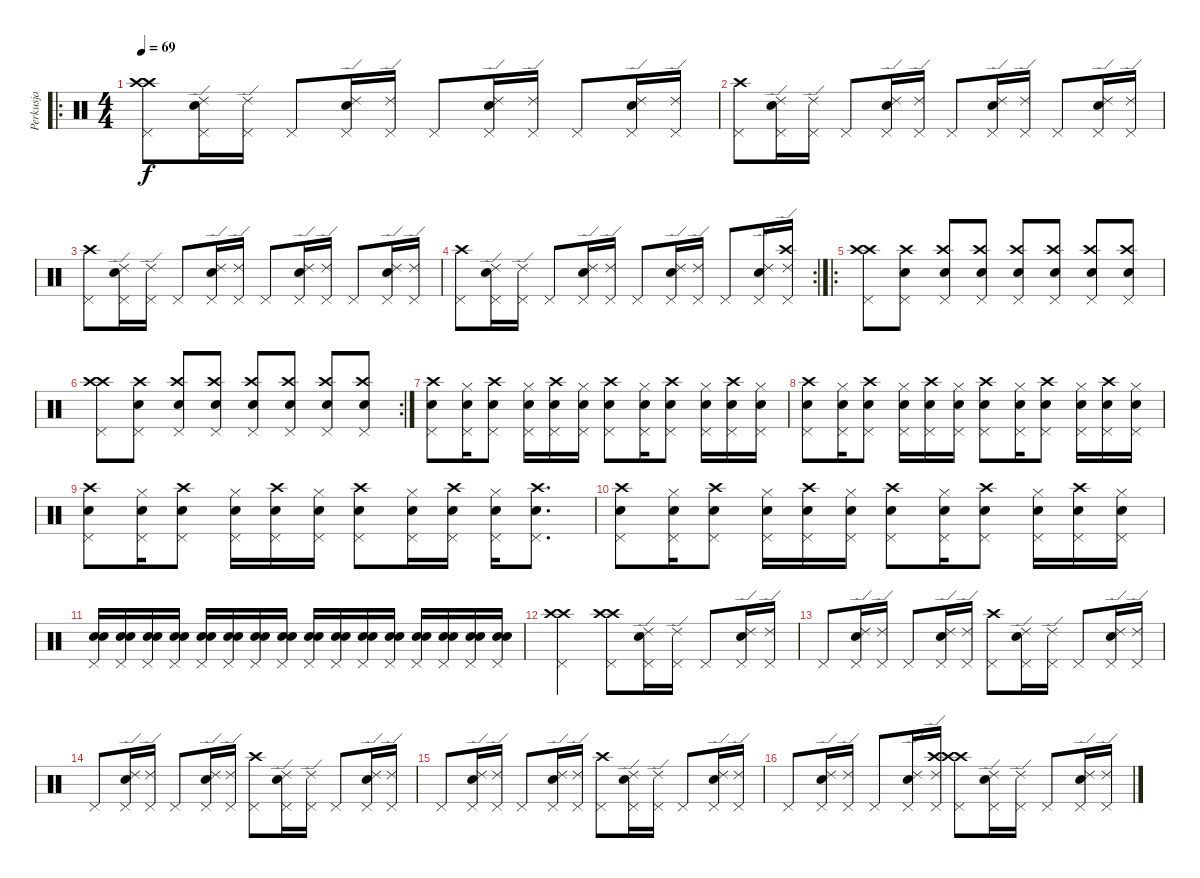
\track ("Perkusja" "Perkusja") {instrument percussion}
\staff {score}
\articulation defaults
\ro
\ts (4 4)
\tempo 69
\clef neutral
\ks c
("Pedal Hi-Hat (hit)" "Crash high (hit)" "Crash high (hit)").8{dy f} ("Pedal Hi-Hat (hit)" "Ride (edge) 2" "Snare (hit) 2").16 ("Pedal Hi-Hat (hit)" "Ride (edge) 2").16 "Pedal Hi-Hat (hit)".8 ("Pedal Hi-Hat (hit)" "Ride (edge) 2" "Snare (hit) 2").16 ("Pedal Hi-Hat (hit)" "Ride (edge) 2").16 "Pedal Hi-Hat (hit)".8 ("Pedal Hi-Hat (hit)" "Ride (edge) 2" "Snare (hit) 2").16 ("Pedal Hi-Hat (hit)" "Ride (edge) 2").16 "Pedal Hi-Hat (hit)".8 ("Pedal Hi-Hat (hit)" "Ride (edge) 2" "Snare (hit) 2").16 ("Pedal Hi-Hat (hit)" "Ride (edge) 2").16 |
("Pedal Hi-Hat (hit)" "Crash high (hit)").8 ("Pedal Hi-Hat (hit)" "Ride (edge) 2" "Snare (hit) 2").16 ("Pedal Hi-Hat (hit)" "Ride (edge) 2").16 "Pedal Hi-Hat (hit)".8 ("Pedal Hi-Hat (hit)" "Ride (edge) 2" "Snare (hit) 2").16 ("Pedal Hi-Hat (hit)" "Ride (edge) 2").16 "Pedal Hi-Hat (hit)".8 ("Pedal Hi-Hat (hit)" "Ride (edge) 2" "Snare (hit) 2").16 ("Pedal Hi-Hat (hit)" "Ride (edge) 2").16 "Pedal Hi-Hat (hit)".8 ("Pedal Hi-Hat (hit)" "Ride (edge) 2" "Snare (hit) 2").16 ("Pedal Hi-Hat (hit)" "Ride (edge) 2").16 |
("Pedal Hi-Hat (hit)" "Crash high (hit)").8 ("Pedal Hi-Hat (hit)" "Ride (edge) 2" "Snare (hit) 2").16 ("Pedal Hi-Hat (hit)" "Ride (edge) 2").16 "Pedal Hi-Hat (hit)".8 ("Pedal Hi-Hat (hit)" "Ride (edge) 2" "Snare (hit) 2").16 ("Pedal Hi-Hat (hit)" "Ride (edge) 2").16 "Pedal Hi-Hat (hit)".8 ("Pedal Hi-Hat (hit)" "Ride (edge) 2" "Snare (hit) 2").16 ("Pedal Hi-Hat (hit)" "Ride (edge) 2").16 "Pedal Hi-Hat (hit)".8 ("Pedal Hi-Hat (hit)" "Ride (edge) 2" "Snare (hit) 2").16 ("Pedal Hi-Hat (hit)" "Ride (edge) 2").16 |
\rc 2
("Pedal Hi-Hat (hit)" "Crash high (hit)").8 ("Pedal Hi-Hat (hit)" "Ride (edge) 2" "Snare (hit) 2").16 ("Pedal Hi-Hat (hit)" "Ride (edge) 2").16 "Pedal Hi-Hat (hit)".8 ("Pedal Hi-Hat (hit)" "Ride (edge) 2" "Snare (hit) 2").16 ("Pedal Hi-Hat (hit)" "Ride (edge) 2").16 "Pedal Hi-Hat (hit)".8 ("Pedal Hi-Hat (hit)" "Ride (edge) 2" "Snare (hit) 2").16 ("Pedal Hi-Hat (hit)" "Ride (edge) 2").16 "Pedal Hi-Hat (hit)".8 ("Pedal Hi-Hat (hit)" "Ride (edge) 2" "Snare (hit) 2").16 ("Pedal Hi-Hat (hit)" "Ride (edge) 2" "Crash high (hit)").16 |
\ro
("Pedal Hi-Hat (hit)" "Crash high (hit)" "Crash high (hit)").8 ("Pedal Hi-Hat (hit)" "Crash high (hit)" "Snare (hit) 2").8 ("Pedal Hi-Hat (hit)" "Crash high (hit)" "Snare (hit) 2").8 ("Pedal Hi-Hat (hit)" "Crash high (hit)" "Snare (hit) 2").8 ("Pedal Hi-Hat (hit)" "Crash high (hit)" "Snare (hit) 2").8 ("Pedal Hi-Hat (hit)" "Crash high (hit)" "Snare (hit) 2").8 ("Pedal Hi-Hat (hit)" "Crash high (hit)" "Snare (hit) 2").8 ("Pedal Hi-Hat (hit)" "Crash high (hit)" "Snare (hit) 2").8 |
\rc 2
("Pedal Hi-Hat (hit)" "Crash high (hit)" "Crash high (hit)").8 ("Pedal Hi-Hat (hit)" "Crash high (hit)" "Snare (hit) 2").8 ("Pedal Hi-Hat (hit)" "Crash high (hit)" "Snare (hit) 2").8 ("Pedal Hi-Hat (hit)" "Crash high (hit)" "Snare (hit) 2").8 ("Pedal Hi-Hat (hit)" "Crash high (hit)" "Snare (hit) 2").8 ("Pedal Hi-Hat (hit)" "Crash high (hit)" "Snare (hit) 2").8 ("Pedal Hi-Hat (hit)" "Crash high (hit)" "Snare (hit) 2").8 ("Pedal Hi-Hat (hit)" "Crash high (hit)" "Snare (hit) 2").8 |
("Pedal Hi-Hat (hit)" "Crash high (hit)" "Snare (hit) 2").8 ("Pedal Hi-Hat (hit)" "Hi-Hat (closed)" "Snare (hit) 2").16 ("Pedal Hi-Hat (hit)" "Crash high (hit)" "Snare (hit) 2").8 ("Pedal Hi-Hat (hit)" "Hi-Hat (closed)" "Snare (hit) 2").16 ("Pedal Hi-Hat (hit)" "Crash high (hit)" "Snare (hit) 2").16 ("Pedal Hi-Hat (hit)" "Hi-Hat (closed)" "Snare (hit) 2").16 ("Pedal Hi-Hat (hit)" "Crash high (hit)" "Snare (hit) 2").8 ("Pedal Hi-Hat (hit)" "Hi-Hat (closed)" "Snare (hit) 2").16 ("Pedal Hi-Hat (hit)" "Crash high (hit)" "Snare (hit) 2").8 ("Pedal Hi-Hat (hit)" "Hi-Hat (closed)" "Snare (hit) 2").16 ("Pedal Hi-Hat (hit)" "Crash high (hit)" "Snare (hit) 2").16 ("Pedal Hi-Hat (hit)" "Hi-Hat (closed)" "Snare (hit) 2").16 |
("Pedal Hi-Hat (hit)" "Crash high (hit)" "Snare (hit) 2").8 ("Pedal Hi-Hat (hit)" "Hi-Hat (closed)" "Snare (hit) 2").16 ("Pedal Hi-Hat (hit)" "Crash high (hit)" "Snare (hit) 2").8 ("Pedal Hi-Hat (hit)" "Hi-Hat (closed)" "Snare (hit) 2").16 ("Pedal Hi-Hat (hit)" "Crash high (hit)" "Snare (hit) 2").16 ("Pedal Hi-Hat (hit)" "Hi-Hat (closed)" "Snare (hit) 2").16 ("Pedal Hi-Hat (hit)" "Crash high (hit)" "Snare (hit) 2").8 ("Pedal Hi-Hat (hit)" "Hi-Hat (closed)" "Snare (hit) 2").16 ("Pedal Hi-Hat (hit)" "Crash high (hit)" "Snare (hit) 2").8 ("Pedal Hi-Hat (hit)" "Hi-Hat (closed)" "Snare (hit) 2").16 ("Pedal Hi-Hat (hit)" "Crash high (hit)" "Snare (hit) 2").16 ("Pedal Hi-Hat (hit)" "Hi-Hat (closed)" "Snare (hit) 2").16 |
("Pedal Hi-Hat (hit)" "Crash high (hit)" "Snare (hit) 2").8 ("Pedal Hi-Hat (hit)" "Hi-Hat (closed)" "Snare (hit) 2").16 ("Pedal Hi-Hat (hit)" "Crash high (hit)" "Snare (hit) 2").8 ("Pedal Hi-Hat (hit)" "Hi-Hat (closed)" "Snare (hit) 2").16 ("Pedal Hi-Hat (hit)" "Crash high (hit)" "Snare (hit) 2").16 ("Pedal Hi-Hat (hit)" "Hi-Hat (closed)" "Snare (hit) 2").16 ("Pedal Hi-Hat (hit)" "Crash high (hit)" "Snare (hit) 2").8 ("Pedal Hi-Hat (hit)" "Hi-Hat (closed)" "Snare (hit) 2").16 ("Pedal Hi-Hat (hit)" "Crash high (hit)" "Snare (hit) 2").16 ("Pedal Hi-Hat (hit)" "Hi-Hat (closed)" "Snare (hit) 2").16 ("Pedal Hi-Hat (hit)" "Crash high (hit)" "Snare (hit) 2").8{d} |
("Pedal Hi-Hat (hit)" "Crash high (hit)" "Snare (hit) 2").8 ("Pedal Hi-Hat (hit)" "Hi-Hat (closed)" "Snare (hit) 2").16 ("Pedal Hi-Hat (hit)" "Crash high (hit)" "Snare (hit) 2").8 ("Pedal Hi-Hat (hit)" "Hi-Hat (closed)" "Snare (hit) 2").16 ("Pedal Hi-Hat (hit)" "Crash high (hit)" "Snare (hit) 2").16 ("Pedal Hi-Hat (hit)" "Hi-Hat (closed)" "Snare (hit) 2").16 ("Pedal Hi-Hat (hit)" "Crash high (hit)" "Snare (hit) 2").8 ("Pedal Hi-Hat (hit)" "Hi-Hat (closed)" "Snare (hit) 2").16 ("Pedal Hi-Hat (hit)" "Crash high (hit)" "Snare (hit) 2").8 ("Pedal Hi-Hat (hit)" "Hi-Hat (closed)" "Snare (hit) 2").16 ("Pedal Hi-Hat (hit)" "Crash high (hit)" "Snare (hit) 2").16 ("Pedal Hi-Hat (hit)" "Hi-Hat (closed)" "Snare (hit) 2").16 |
("Pedal Hi-Hat (hit)" "Snare (hit) 2" "Snare (hit) 2").16 ("Pedal Hi-Hat (hit)" "Snare (hit) 2" "Snare (hit) 2").16 ("Pedal Hi-Hat (hit)" "Snare (hit) 2" "Snare (hit) 2").16 ("Pedal Hi-Hat (hit)" "Snare (hit) 2" "Snare (hit) 2").16 ("Pedal Hi-Hat (hit)" "Snare (hit) 2" "Snare (hit) 2").16 ("Pedal Hi-Hat (hit)" "Snare (hit) 2" "Snare (hit) 2").16 ("Pedal Hi-Hat (hit)" "Snare (hit) 2" "Snare (hit) 2").16 ("Pedal Hi-Hat (hit)" "Snare (hit) 2" "Snare (hit) 2").16 ("Pedal Hi-Hat (hit)" "Snare (hit) 2" "Snare (hit) 2").16 ("Pedal Hi-Hat (hit)" "Snare (hit) 2" "Snare (hit) 2").16 ("Pedal Hi-Hat (hit)" "Snare (hit) 2" "Snare (hit) 2").16 ("Pedal Hi-Hat (hit)" "Snare (hit) 2" "Snare (hit) 2").16 ("Pedal Hi-Hat (hit)" "Snare (hit) 2" "Snare (hit) 2").16 ("Pedal Hi-Hat (hit)" "Snare (hit) 2" "Snare (hit) 2").16 ("Pedal Hi-Hat (hit)" "Snare (hit) 2" "Snare (hit) 2").16 ("Pedal Hi-Hat (hit)" "Snare (hit) 2" "Snare (hit) 2").16 |
("Pedal Hi-Hat (hit)" "Crash high (hit)" "Crash high (hit)").2 ("Pedal Hi-Hat (hit)" "Crash high (hit)" "Crash high (hit)").8 ("Pedal Hi-Hat (hit)" "Ride (edge) 2" "Snare (hit) 2").16 ("Pedal Hi-Hat (hit)" "Ride (edge) 2").16 "Pedal Hi-Hat (hit)".8 ("Pedal Hi-Hat (hit)" "Ride (edge) 2" "Snare (hit) 2").16 ("Pedal Hi-Hat (hit)" "Ride (edge) 2").16 |
"Pedal Hi-Hat (hit)".8 ("Pedal Hi-Hat (hit)" "Ride (edge) 2" "Snare (hit) 2").16 ("Pedal Hi-Hat (hit)" "Ride (edge) 2").16 "Pedal Hi-Hat (hit)".8 ("Pedal Hi-Hat (hit)" "Ride (edge) 2" "Snare (hit) 2").16 ("Pedal Hi-Hat (hit)" "Ride (edge) 2").16 ("Pedal Hi-Hat (hit)" "Crash high (hit)").8 ("Pedal Hi-Hat (hit)" "Ride (edge) 2" "Snare (hit) 2").16 ("Pedal Hi-Hat (hit)" "Ride (edge) 2").16 "Pedal Hi-Hat (hit)".8 ("Pedal Hi-Hat (hit)" "Ride (edge) 2" "Snare (hit) 2").16 ("Pedal Hi-Hat (hit)" "Ride (edge) 2").16 |
"Pedal Hi-Hat (hit)".8 ("Pedal Hi-Hat (hit)" "Ride (edge) 2" "Snare (hit) 2").16 ("Pedal Hi-Hat (hit)" "Ride (edge) 2").16 "Pedal Hi-Hat (hit)".8 ("Pedal Hi-Hat (hit)" "Ride (edge) 2" "Snare (hit) 2").16 ("Pedal Hi-Hat (hit)" "Ride (edge) 2").16 ("Pedal Hi-Hat (hit)" "Crash high (hit)").8 ("Pedal Hi-Hat (hit)" "Ride (edge) 2" "Snare (hit) 2").16 ("Pedal Hi-Hat (hit)" "Ride (edge) 2").16 "Pedal Hi-Hat (hit)".8 ("Pedal Hi-Hat (hit)" "Ride (edge) 2" "Snare (hit) 2").16 ("Pedal Hi-Hat (hit)" "Ride (edge) 2").16 |
"Pedal Hi-Hat (hit)".8 ("Pedal Hi-Hat (hit)" "Ride (edge) 2" "Snare (hit) 2").16 ("Pedal Hi-Hat (hit)" "Ride (edge) 2").16 "Pedal Hi-Hat (hit)".8 ("Pedal Hi-Hat (hit)" "Ride (edge) 2" "Snare (hit) 2").16 ("Pedal Hi-Hat (hit)" "Ride (edge) 2").16 ("Pedal Hi-Hat (hit)" "Crash high (hit)").8 ("Pedal Hi-Hat (hit)" "Ride (edge) 2" "Snare (hit) 2").16 ("Pedal Hi-Hat (hit)" "Ride (edge) 2").16 "Pedal Hi-Hat (hit)".8 ("Pedal Hi-Hat (hit)" "Ride (edge) 2" "Snare (hit) 2").16 ("Pedal Hi-Hat (hit)" "Ride (edge) 2").16 |
"Pedal Hi-Hat (hit)".8 ("Pedal Hi-Hat (hit)" "Ride (edge) 2" "Snare (hit) 2").16 ("Pedal Hi-Hat (hit)" "Ride (edge) 2").16 "Pedal Hi-Hat (hit)".8 ("Pedal Hi-Hat (hit)" "Ride (edge) 2" "Snare (hit) 2").16 ("Pedal Hi-Hat (hit)" "Ride (edge) 2" "Crash high (hit)").16 ("Pedal Hi-Hat (hit)" "Crash high (hit)" "Crash high (hit)").8 ("Pedal Hi-Hat (hit)" "Ride (edge) 2" "Snare (hit) 2").16 ("Pedal Hi-Hat (hit)" "Ride (edge) 2").16 "Pedal Hi-Hat (hit)".8 ("Pedal Hi-Hat (hit)" "Ride (edge) 2" "Snare (hit) 2").16 ("Pedal Hi-Hat (hit)" "Ride (edge) 2").16
